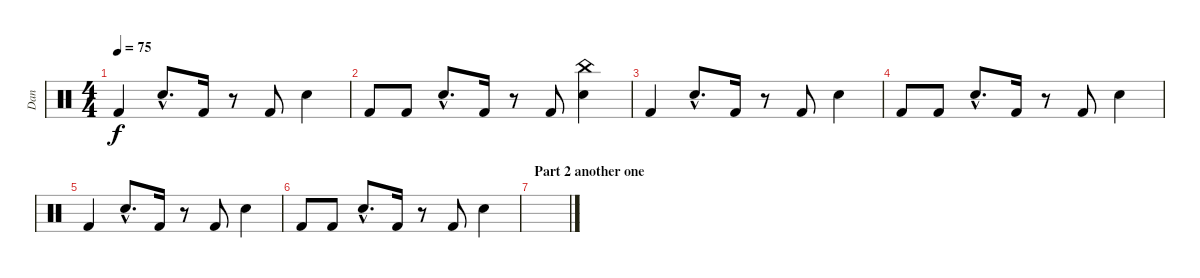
\track ("Dan" "Dan") {instrument percussion}
\staff {score}
\articulation defaults
\ts (4 4)
\tempo 75
\clef neutral
\ks c "Kick (hit) 2".4{dy f} "Snare (hit) 2"{hac}.8{d} "Kick (hit) 2".16
r.8 "Kick (hit) 2".8 "Snare (hit) 2".4 |
"Kick (hit) 2".8 "Kick (hit) 2".8 "Snare (hit) 2"{hac}.8{d} "Kick (hit) 2".16 r.8 "Kick (hit) 2".8 ("China (hit)" "Snare (hit) 2").4 |
"Kick (hit) 2".4 "Snare (hit) 2"{hac}.8{d} "Kick (hit) 2".16 r.8 "Kick (hit) 2".8 "Snare (hit) 2".4 |
"Kick (hit) 2".8 "Kick (hit) 2".8 "Snare (hit) 2"{hac}.8{d} "Kick (hit) 2".16 r.8 "Kick (hit) 2".8 "Snare (hit) 2".4 |
"Kick (hit) 2".4 "Snare (hit) 2"{hac}.8{d} "Kick (hit) 2".16 r.8 "Kick (hit) 2".8 "Snare (hit) 2".4 |
"Kick (hit) 2".8 "Kick (hit) 2".8 "Snare (hit) 2"{hac}.8{d} "Kick (hit) 2".16 r.8 "Kick (hit) 2".8 "Snare (hit) 2".4 |
\section ("" "Part 2 another one")
